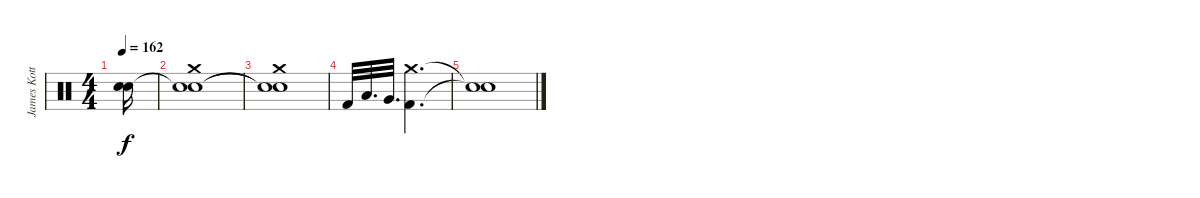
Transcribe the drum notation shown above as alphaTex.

\track ("James Kottak" "James Kott") {instrument percussion}
\staff {score}
\articulation defaults
\ts (4 4)
\tempo 162
\clef neutral
\ks c
("Snare (hit)"{t} "Snare (hit)"{t}).16{dy f} |
("Crash medium (hit)" "Snare (hit)"{t} "Snare (hit)").1 |
("Crash medium (hit)" "Snare (hit)"{t} "Snare (hit)"{t}).1 |
"Kick (hit) 2".32 "Low Tom (hit)".32{d} "Very Low Tom (hit)".32{d} ("Crash medium (hit)" "Kick (hit) 2").4{d} |
("Snare (hit)"{t} "Snare (hit)"{t}).1
